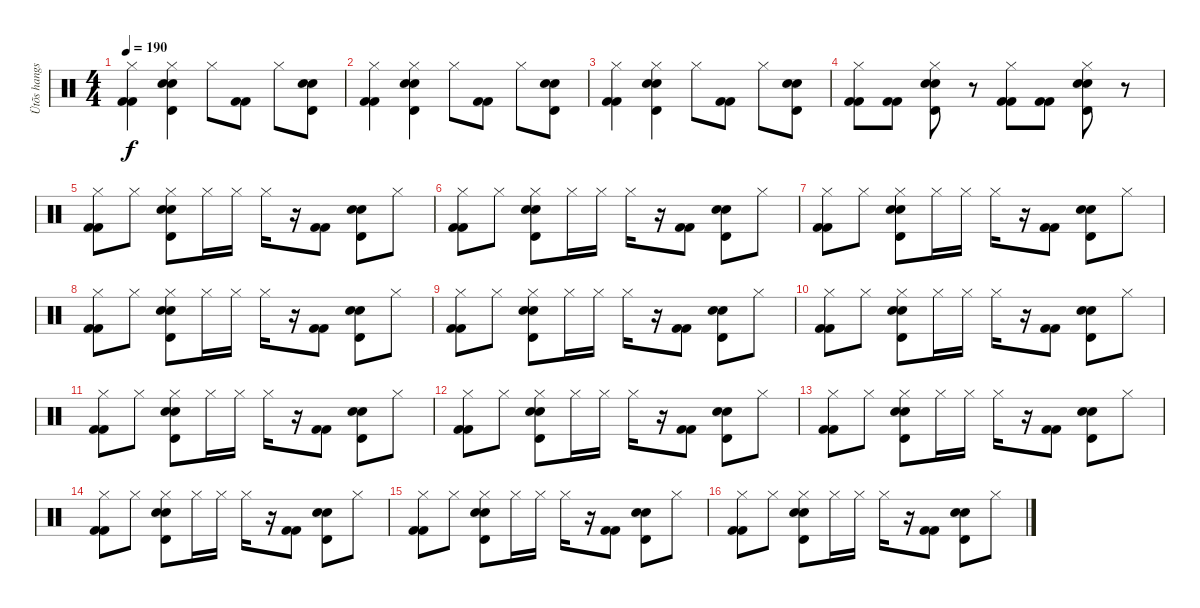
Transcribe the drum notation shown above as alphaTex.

\track ("Ütõs hangszer" "Ütõs hangs") {instrument percussion}
\staff {score}
\articulation defaults
\ts (4 4)
\tempo 190
\clef neutral
\ks c
("Hi-Hat (closed)" "Kick (hit) 2" "Kick (hit) 2").4{dy f} ("Hi-Hat (closed)" "Timbale high (hit)" "Electric Snare (hit)" "Electric Snare (hit)").4 "Hi-Hat (closed)".8 ("Kick (hit) 2" "Kick (hit) 2").8 "Hi-Hat (closed)".8 ("Timbale high (hit)" "Electric Snare (hit)" "Electric Snare (hit)").8 |
("Hi-Hat (closed)" "Kick (hit) 2" "Kick (hit) 2").4 ("Hi-Hat (closed)" "Timbale high (hit)" "Electric Snare (hit)" "Electric Snare (hit)").4 "Hi-Hat (closed)".8 ("Kick (hit) 2" "Kick (hit) 2").8 "Hi-Hat (closed)".8 ("Timbale high (hit)" "Electric Snare (hit)" "Electric Snare (hit)").8 |
("Hi-Hat (closed)" "Kick (hit) 2" "Kick (hit) 2").4 ("Hi-Hat (closed)" "Timbale high (hit)" "Electric Snare (hit)" "Electric Snare (hit)").4 "Hi-Hat (closed)".8 ("Kick (hit) 2" "Kick (hit) 2").8 "Hi-Hat (closed)".8 ("Timbale high (hit)" "Electric Snare (hit)" "Electric Snare (hit)").8 |
("Hi-Hat (closed)" "Kick (hit) 2" "Kick (hit) 2").8 ("Kick (hit) 2" "Kick (hit) 2").8 ("Hi-Hat (closed)" "Timbale high (hit)" "Electric Snare (hit)" "Electric Snare (hit)").8 r.8 ("Hi-Hat (closed)" "Kick (hit) 2" "Kick (hit) 2").8 ("Kick (hit) 2" "Kick (hit) 2").8 ("Hi-Hat (closed)" "Timbale high (hit)" "Electric Snare (hit)" "Electric Snare (hit)").8 r.8 |
("Hi-Hat (closed)" "Kick (hit) 2" "Kick (hit) 2").8 "Hi-Hat (closed)".8 ("Hi-Hat (closed)" "Timbale high (hit)" "Electric Snare (hit)" "Electric Snare (hit)").8 "Hi-Hat (closed)".16 "Hi-Hat (closed)".16 "Hi-Hat (closed)".16 r.16 ("Kick (hit) 2" "Kick (hit) 2").8 ("Timbale high (hit)" "Electric Snare (hit)" "Electric Snare (hit)").8 "Hi-Hat (closed)".8 |
("Hi-Hat (closed)" "Kick (hit) 2" "Kick (hit) 2").8 "Hi-Hat (closed)".8 ("Hi-Hat (closed)" "Timbale high (hit)" "Electric Snare (hit)" "Electric Snare (hit)").8 "Hi-Hat (closed)".16 "Hi-Hat (closed)".16 "Hi-Hat (closed)".16 r.16 ("Kick (hit) 2" "Kick (hit) 2").8 ("Timbale high (hit)" "Electric Snare (hit)" "Electric Snare (hit)").8 "Hi-Hat (closed)".8 |
("Hi-Hat (closed)" "Kick (hit) 2" "Kick (hit) 2").8 "Hi-Hat (closed)".8 ("Hi-Hat (closed)" "Timbale high (hit)" "Electric Snare (hit)" "Electric Snare (hit)").8 "Hi-Hat (closed)".16 "Hi-Hat (closed)".16 "Hi-Hat (closed)".16 r.16 ("Kick (hit) 2" "Kick (hit) 2").8 ("Timbale high (hit)" "Electric Snare (hit)" "Electric Snare (hit)").8 "Hi-Hat (closed)".8 |
("Hi-Hat (closed)" "Kick (hit) 2" "Kick (hit) 2").8 "Hi-Hat (closed)".8 ("Hi-Hat (closed)" "Timbale high (hit)" "Electric Snare (hit)" "Electric Snare (hit)").8 "Hi-Hat (closed)".16 "Hi-Hat (closed)".16 "Hi-Hat (closed)".16 r.16 ("Kick (hit) 2" "Kick (hit) 2").8 ("Timbale high (hit)" "Electric Snare (hit)" "Electric Snare (hit)").8 "Hi-Hat (closed)".8 |
("Hi-Hat (closed)" "Kick (hit) 2" "Kick (hit) 2").8 "Hi-Hat (closed)".8 ("Hi-Hat (closed)" "Timbale high (hit)" "Electric Snare (hit)" "Electric Snare (hit)").8 "Hi-Hat (closed)".16 "Hi-Hat (closed)".16 "Hi-Hat (closed)".16 r.16 ("Kick (hit) 2" "Kick (hit) 2").8 ("Timbale high (hit)" "Electric Snare (hit)" "Electric Snare (hit)").8 "Hi-Hat (closed)".8 |
("Hi-Hat (closed)" "Kick (hit) 2" "Kick (hit) 2").8 "Hi-Hat (closed)".8 ("Hi-Hat (closed)" "Timbale high (hit)" "Electric Snare (hit)" "Electric Snare (hit)").8 "Hi-Hat (closed)".16 "Hi-Hat (closed)".16 "Hi-Hat (closed)".16 r.16 ("Kick (hit) 2" "Kick (hit) 2").8 ("Timbale high (hit)" "Electric Snare (hit)" "Electric Snare (hit)").8 "Hi-Hat (closed)".8 |
("Hi-Hat (closed)" "Kick (hit) 2" "Kick (hit) 2").8 "Hi-Hat (closed)".8 ("Hi-Hat (closed)" "Timbale high (hit)" "Electric Snare (hit)" "Electric Snare (hit)").8 "Hi-Hat (closed)".16 "Hi-Hat (closed)".16 "Hi-Hat (closed)".16 r.16 ("Kick (hit) 2" "Kick (hit) 2").8 ("Timbale high (hit)" "Electric Snare (hit)" "Electric Snare (hit)").8 "Hi-Hat (closed)".8 |
("Hi-Hat (closed)" "Kick (hit) 2" "Kick (hit) 2").8 "Hi-Hat (closed)".8 ("Hi-Hat (closed)" "Timbale high (hit)" "Electric Snare (hit)" "Electric Snare (hit)").8 "Hi-Hat (closed)".16 "Hi-Hat (closed)".16 "Hi-Hat (closed)".16 r.16 ("Kick (hit) 2" "Kick (hit) 2").8 ("Timbale high (hit)" "Electric Snare (hit)" "Electric Snare (hit)").8 "Hi-Hat (closed)".8 |
("Hi-Hat (closed)" "Kick (hit) 2" "Kick (hit) 2").8 "Hi-Hat (closed)".8 ("Hi-Hat (closed)" "Timbale high (hit)" "Electric Snare (hit)" "Electric Snare (hit)").8 "Hi-Hat (closed)".16 "Hi-Hat (closed)".16 "Hi-Hat (closed)".16 r.16 ("Kick (hit) 2" "Kick (hit) 2").8 ("Timbale high (hit)" "Electric Snare (hit)" "Electric Snare (hit)").8 "Hi-Hat (closed)".8 |
("Hi-Hat (closed)" "Kick (hit) 2" "Kick (hit) 2").8 "Hi-Hat (closed)".8 ("Hi-Hat (closed)" "Timbale high (hit)" "Electric Snare (hit)" "Electric Snare (hit)").8 "Hi-Hat (closed)".16 "Hi-Hat (closed)".16 "Hi-Hat (closed)".16 r.16 ("Kick (hit) 2" "Kick (hit) 2").8 ("Timbale high (hit)" "Electric Snare (hit)" "Electric Snare (hit)").8 "Hi-Hat (closed)".8 |
("Hi-Hat (closed)" "Kick (hit) 2" "Kick (hit) 2").8 "Hi-Hat (closed)".8 ("Hi-Hat (closed)" "Timbale high (hit)" "Electric Snare (hit)" "Electric Snare (hit)").8 "Hi-Hat (closed)".16 "Hi-Hat (closed)".16 "Hi-Hat (closed)".16 r.16 ("Kick (hit) 2" "Kick (hit) 2").8 ("Timbale high (hit)" "Electric Snare (hit)" "Electric Snare (hit)").8 "Hi-Hat (closed)".8 |
("Hi-Hat (closed)" "Kick (hit) 2" "Kick (hit) 2").8 "Hi-Hat (closed)".8 ("Hi-Hat (closed)" "Timbale high (hit)" "Electric Snare (hit)" "Electric Snare (hit)").8 "Hi-Hat (closed)".16 "Hi-Hat (closed)".16 "Hi-Hat (closed)".16 r.16 ("Kick (hit) 2" "Kick (hit) 2").8 ("Timbale high (hit)" "Electric Snare (hit)" "Electric Snare (hit)").8 "Hi-Hat (closed)".8
